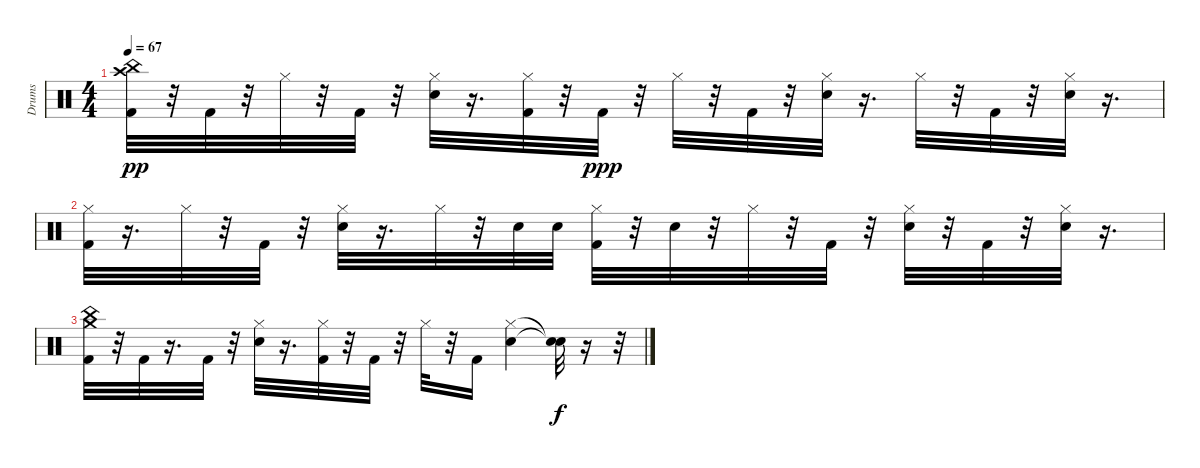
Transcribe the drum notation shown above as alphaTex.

\track ("Drums" "Drums") {instrument percussion}
\staff {score}
\articulation defaults
\ts (4 4)
\tempo 67
\clef neutral
\ks c
("China (hit)" "Crash high (hit)" "Kick (hit) 2").32{dy pp} r.32 "Kick (hit) 2".32 r.32 "Hi-Hat (closed)".32 r.32 "Kick (hit) 2".32 r.32 ("Snare (hit) 2" "Hi-Hat (closed)").32 r.16{d} ("Kick (hit) 2" "Hi-Hat (closed)").32 r.32 "Kick (hit) 2".32{dy ppp} r.32 "Hi-Hat (closed)".32 r.32 "Kick (hit) 2".32 r.32 ("Snare (hit) 2" "Hi-Hat (closed)").32 r.16{d} "Hi-Hat (closed)".32 r.32 "Kick (hit) 2".32 r.32 ("Snare (hit) 2" "Hi-Hat (closed)").32 r.16{d} |
("Kick (hit) 2" "Hi-Hat (closed)").32 r.16{d} "Hi-Hat (closed)".32 r.32 "Kick (hit) 2".32 r.32 ("Snare (hit) 2" "Hi-Hat (closed)").32 r.16{d} "Hi-Hat (closed)".32 r.32 "Snare (hit) 2".32 "Snare (hit) 2".32 ("Kick (hit) 2" "Hi-Hat (closed)").32 r.32 "Snare (hit) 2".32 r.32 "Hi-Hat (closed)".32 r.32 "Kick (hit) 2".32 r.32 ("Snare (hit) 2" "Hi-Hat (closed)").32 r.32 "Kick (hit) 2".32 r.32 ("Snare (hit) 2" "Hi-Hat (closed)").32 r.16{d} |
("China (hit)" "Crash medium (hit)" "Kick (hit) 2").32 r.32 "Kick (hit) 2".32 r.16{d} "Kick (hit) 2".32 r.32 ("Snare (hit) 2" "Hi-Hat (closed)").32 r.16{d} ("Kick (hit) 2" "Hi-Hat (closed)").32 r.32 "Kick (hit) 2".32 r.32 "Hi-Hat (closed)".32 r.32 "Kick (hit) 2".16 ("Snare (hit) 2" "Hi-Hat (closed)").4 ("Snare (hit)"{t} "Snare (hit)"{t}).32{dy f} r.16 r.32
